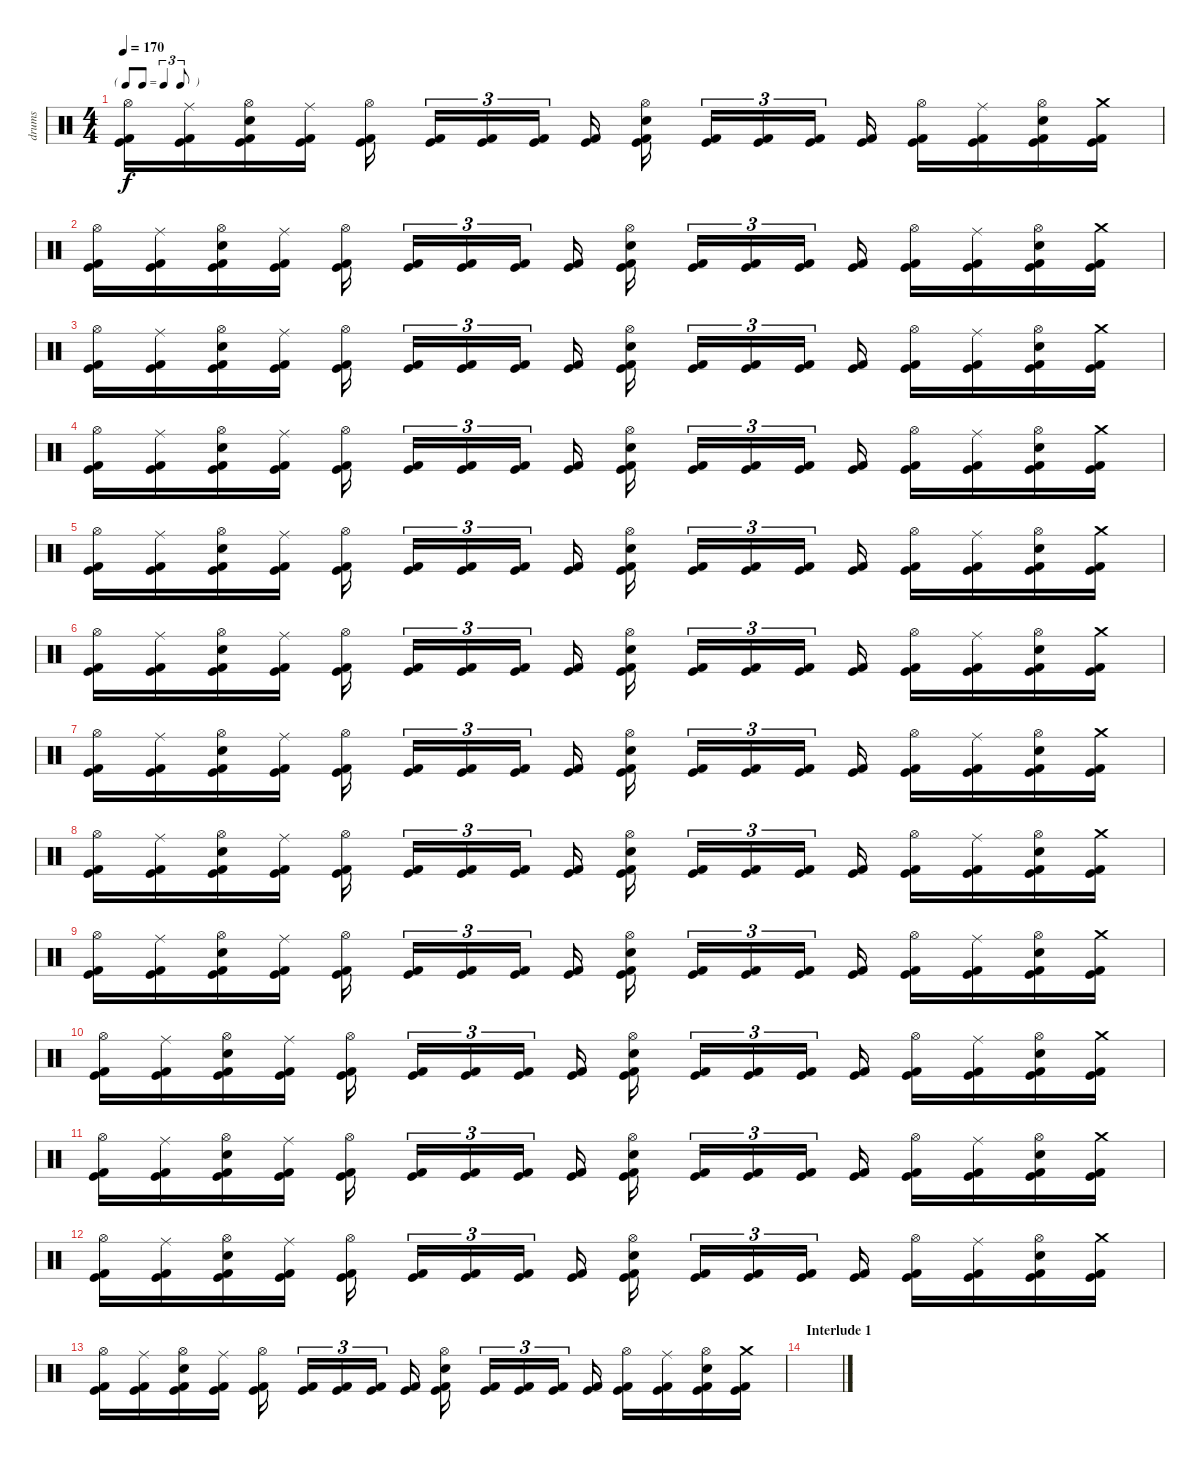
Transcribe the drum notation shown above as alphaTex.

\track ("drums" "drums") {instrument percussion}
\staff {score}
\articulation defaults
\ts (4 4)
\tf triplet8th
\tempo 170
\clef neutral
\ks c
("Hi-Hat (open)" "Kick (hit)" "Kick (hit) 2").16{dy f} ("Ride (middle)" "Kick (hit)" "Kick (hit) 2").16 ("Hi-Hat (open)" "Snare (hit) 2" "Kick (hit)" "Kick (hit) 2").16 ("Ride (middle)" "Kick (hit)" "Kick (hit) 2").16 ("Hi-Hat (open)" "Kick (hit)" "Kick (hit) 2").16 ("Kick (hit)" "Kick (hit) 2").16{tu (3 2)} ("Kick (hit)" "Kick (hit) 2").16{tu (3 2)} ("Kick (hit)" "Kick (hit) 2").16{tu (3 2)} ("Kick (hit)" "Kick (hit) 2").16 ("Hi-Hat (open)" "Snare (hit) 2" "Kick (hit)" "Kick (hit) 2").16 ("Kick (hit)" "Kick (hit) 2").16{tu (3 2)} ("Kick (hit)" "Kick (hit) 2").16{tu (3 2)} ("Kick (hit)" "Kick (hit) 2").16{tu (3 2)} ("Kick (hit)" "Kick (hit) 2").16 ("Hi-Hat (open)" "Kick (hit)" "Kick (hit) 2").16 ("Ride (middle)" "Kick (hit)" "Kick (hit) 2").16 ("Hi-Hat (open)" "Snare (hit) 2" "Kick (hit)" "Kick (hit) 2").16 ("Crash medium (hit)" "Kick (hit)" "Kick (hit) 2").16 |
("Hi-Hat (open)" "Kick (hit)" "Kick (hit) 2").16 ("Ride (middle)" "Kick (hit)" "Kick (hit) 2").16 ("Hi-Hat (open)" "Snare (hit) 2" "Kick (hit)" "Kick (hit) 2").16 ("Ride (middle)" "Kick (hit)" "Kick (hit) 2").16 ("Hi-Hat (open)" "Kick (hit)" "Kick (hit) 2").16 ("Kick (hit)" "Kick (hit) 2").16{tu (3 2)} ("Kick (hit)" "Kick (hit) 2").16{tu (3 2)} ("Kick (hit)" "Kick (hit) 2").16{tu (3 2)} ("Kick (hit)" "Kick (hit) 2").16 ("Hi-Hat (open)" "Snare (hit) 2" "Kick (hit)" "Kick (hit) 2").16 ("Kick (hit)" "Kick (hit) 2").16{tu (3 2)} ("Kick (hit)" "Kick (hit) 2").16{tu (3 2)} ("Kick (hit)" "Kick (hit) 2").16{tu (3 2)} ("Kick (hit)" "Kick (hit) 2").16 ("Hi-Hat (open)" "Kick (hit)" "Kick (hit) 2").16 ("Ride (middle)" "Kick (hit)" "Kick (hit) 2").16 ("Hi-Hat (open)" "Snare (hit) 2" "Kick (hit)" "Kick (hit) 2").16 ("Crash medium (hit)" "Kick (hit)" "Kick (hit) 2").16 |
("Hi-Hat (open)" "Kick (hit)" "Kick (hit) 2").16 ("Ride (middle)" "Kick (hit)" "Kick (hit) 2").16 ("Hi-Hat (open)" "Snare (hit) 2" "Kick (hit)" "Kick (hit) 2").16 ("Ride (middle)" "Kick (hit)" "Kick (hit) 2").16 ("Hi-Hat (open)" "Kick (hit)" "Kick (hit) 2").16 ("Kick (hit)" "Kick (hit) 2").16{tu (3 2)} ("Kick (hit)" "Kick (hit) 2").16{tu (3 2)} ("Kick (hit)" "Kick (hit) 2").16{tu (3 2)} ("Kick (hit)" "Kick (hit) 2").16 ("Hi-Hat (open)" "Snare (hit) 2" "Kick (hit)" "Kick (hit) 2").16 ("Kick (hit)" "Kick (hit) 2").16{tu (3 2)} ("Kick (hit)" "Kick (hit) 2").16{tu (3 2)} ("Kick (hit)" "Kick (hit) 2").16{tu (3 2)} ("Kick (hit)" "Kick (hit) 2").16 ("Hi-Hat (open)" "Kick (hit)" "Kick (hit) 2").16 ("Ride (middle)" "Kick (hit)" "Kick (hit) 2").16 ("Hi-Hat (open)" "Snare (hit) 2" "Kick (hit)" "Kick (hit) 2").16 ("Crash medium (hit)" "Kick (hit)" "Kick (hit) 2").16 |
("Hi-Hat (open)" "Kick (hit)" "Kick (hit) 2").16 ("Ride (middle)" "Kick (hit)" "Kick (hit) 2").16 ("Hi-Hat (open)" "Snare (hit) 2" "Kick (hit)" "Kick (hit) 2").16 ("Ride (middle)" "Kick (hit)" "Kick (hit) 2").16 ("Hi-Hat (open)" "Kick (hit)" "Kick (hit) 2").16 ("Kick (hit)" "Kick (hit) 2").16{tu (3 2)} ("Kick (hit)" "Kick (hit) 2").16{tu (3 2)} ("Kick (hit)" "Kick (hit) 2").16{tu (3 2)} ("Kick (hit)" "Kick (hit) 2").16 ("Hi-Hat (open)" "Snare (hit) 2" "Kick (hit)" "Kick (hit) 2").16 ("Kick (hit)" "Kick (hit) 2").16{tu (3 2)} ("Kick (hit)" "Kick (hit) 2").16{tu (3 2)} ("Kick (hit)" "Kick (hit) 2").16{tu (3 2)} ("Kick (hit)" "Kick (hit) 2").16 ("Hi-Hat (open)" "Kick (hit)" "Kick (hit) 2").16 ("Ride (middle)" "Kick (hit)" "Kick (hit) 2").16 ("Hi-Hat (open)" "Snare (hit) 2" "Kick (hit)" "Kick (hit) 2").16 ("Crash medium (hit)" "Kick (hit)" "Kick (hit) 2").16 |
("Hi-Hat (open)" "Kick (hit)" "Kick (hit) 2").16 ("Ride (middle)" "Kick (hit)" "Kick (hit) 2").16 ("Hi-Hat (open)" "Snare (hit) 2" "Kick (hit)" "Kick (hit) 2").16 ("Ride (middle)" "Kick (hit)" "Kick (hit) 2").16 ("Hi-Hat (open)" "Kick (hit)" "Kick (hit) 2").16 ("Kick (hit)" "Kick (hit) 2").16{tu (3 2)} ("Kick (hit)" "Kick (hit) 2").16{tu (3 2)} ("Kick (hit)" "Kick (hit) 2").16{tu (3 2)} ("Kick (hit)" "Kick (hit) 2").16 ("Hi-Hat (open)" "Snare (hit) 2" "Kick (hit)" "Kick (hit) 2").16 ("Kick (hit)" "Kick (hit) 2").16{tu (3 2)} ("Kick (hit)" "Kick (hit) 2").16{tu (3 2)} ("Kick (hit)" "Kick (hit) 2").16{tu (3 2)} ("Kick (hit)" "Kick (hit) 2").16 ("Hi-Hat (open)" "Kick (hit)" "Kick (hit) 2").16 ("Ride (middle)" "Kick (hit)" "Kick (hit) 2").16 ("Hi-Hat (open)" "Snare (hit) 2" "Kick (hit)" "Kick (hit) 2").16 ("Crash medium (hit)" "Kick (hit)" "Kick (hit) 2").16 |
("Hi-Hat (open)" "Kick (hit)" "Kick (hit) 2").16 ("Ride (middle)" "Kick (hit)" "Kick (hit) 2").16 ("Hi-Hat (open)" "Snare (hit) 2" "Kick (hit)" "Kick (hit) 2").16 ("Ride (middle)" "Kick (hit)" "Kick (hit) 2").16 ("Hi-Hat (open)" "Kick (hit)" "Kick (hit) 2").16 ("Kick (hit)" "Kick (hit) 2").16{tu (3 2)} ("Kick (hit)" "Kick (hit) 2").16{tu (3 2)} ("Kick (hit)" "Kick (hit) 2").16{tu (3 2)} ("Kick (hit)" "Kick (hit) 2").16 ("Hi-Hat (open)" "Snare (hit) 2" "Kick (hit)" "Kick (hit) 2").16 ("Kick (hit)" "Kick (hit) 2").16{tu (3 2)} ("Kick (hit)" "Kick (hit) 2").16{tu (3 2)} ("Kick (hit)" "Kick (hit) 2").16{tu (3 2)} ("Kick (hit)" "Kick (hit) 2").16 ("Hi-Hat (open)" "Kick (hit)" "Kick (hit) 2").16 ("Ride (middle)" "Kick (hit)" "Kick (hit) 2").16 ("Hi-Hat (open)" "Snare (hit) 2" "Kick (hit)" "Kick (hit) 2").16 ("Crash medium (hit)" "Kick (hit)" "Kick (hit) 2").16 |
("Hi-Hat (open)" "Kick (hit)" "Kick (hit) 2").16 ("Ride (middle)" "Kick (hit)" "Kick (hit) 2").16 ("Hi-Hat (open)" "Snare (hit) 2" "Kick (hit)" "Kick (hit) 2").16 ("Ride (middle)" "Kick (hit)" "Kick (hit) 2").16 ("Hi-Hat (open)" "Kick (hit)" "Kick (hit) 2").16 ("Kick (hit)" "Kick (hit) 2").16{tu (3 2)} ("Kick (hit)" "Kick (hit) 2").16{tu (3 2)} ("Kick (hit)" "Kick (hit) 2").16{tu (3 2)} ("Kick (hit)" "Kick (hit) 2").16 ("Hi-Hat (open)" "Snare (hit) 2" "Kick (hit)" "Kick (hit) 2").16 ("Kick (hit)" "Kick (hit) 2").16{tu (3 2)} ("Kick (hit)" "Kick (hit) 2").16{tu (3 2)} ("Kick (hit)" "Kick (hit) 2").16{tu (3 2)} ("Kick (hit)" "Kick (hit) 2").16 ("Hi-Hat (open)" "Kick (hit)" "Kick (hit) 2").16 ("Ride (middle)" "Kick (hit)" "Kick (hit) 2").16 ("Hi-Hat (open)" "Snare (hit) 2" "Kick (hit)" "Kick (hit) 2").16 ("Crash medium (hit)" "Kick (hit)" "Kick (hit) 2").16 |
("Hi-Hat (open)" "Kick (hit)" "Kick (hit) 2").16 ("Ride (middle)" "Kick (hit)" "Kick (hit) 2").16 ("Hi-Hat (open)" "Snare (hit) 2" "Kick (hit)" "Kick (hit) 2").16 ("Ride (middle)" "Kick (hit)" "Kick (hit) 2").16 ("Hi-Hat (open)" "Kick (hit)" "Kick (hit) 2").16 ("Kick (hit)" "Kick (hit) 2").16{tu (3 2)} ("Kick (hit)" "Kick (hit) 2").16{tu (3 2)} ("Kick (hit)" "Kick (hit) 2").16{tu (3 2)} ("Kick (hit)" "Kick (hit) 2").16 ("Hi-Hat (open)" "Snare (hit) 2" "Kick (hit)" "Kick (hit) 2").16 ("Kick (hit)" "Kick (hit) 2").16{tu (3 2)} ("Kick (hit)" "Kick (hit) 2").16{tu (3 2)} ("Kick (hit)" "Kick (hit) 2").16{tu (3 2)} ("Kick (hit)" "Kick (hit) 2").16 ("Hi-Hat (open)" "Kick (hit)" "Kick (hit) 2").16 ("Ride (middle)" "Kick (hit)" "Kick (hit) 2").16 ("Hi-Hat (open)" "Snare (hit) 2" "Kick (hit)" "Kick (hit) 2").16 ("Crash medium (hit)" "Kick (hit)" "Kick (hit) 2").16 |
("Hi-Hat (open)" "Kick (hit)" "Kick (hit) 2").16 ("Ride (middle)" "Kick (hit)" "Kick (hit) 2").16 ("Hi-Hat (open)" "Snare (hit) 2" "Kick (hit)" "Kick (hit) 2").16 ("Ride (middle)" "Kick (hit)" "Kick (hit) 2").16 ("Hi-Hat (open)" "Kick (hit)" "Kick (hit) 2").16 ("Kick (hit)" "Kick (hit) 2").16{tu (3 2)} ("Kick (hit)" "Kick (hit) 2").16{tu (3 2)} ("Kick (hit)" "Kick (hit) 2").16{tu (3 2)} ("Kick (hit)" "Kick (hit) 2").16 ("Hi-Hat (open)" "Snare (hit) 2" "Kick (hit)" "Kick (hit) 2").16 ("Kick (hit)" "Kick (hit) 2").16{tu (3 2)} ("Kick (hit)" "Kick (hit) 2").16{tu (3 2)} ("Kick (hit)" "Kick (hit) 2").16{tu (3 2)} ("Kick (hit)" "Kick (hit) 2").16 ("Hi-Hat (open)" "Kick (hit)" "Kick (hit) 2").16 ("Ride (middle)" "Kick (hit)" "Kick (hit) 2").16 ("Hi-Hat (open)" "Snare (hit) 2" "Kick (hit)" "Kick (hit) 2").16 ("Crash medium (hit)" "Kick (hit)" "Kick (hit) 2").16 |
("Hi-Hat (open)" "Kick (hit)" "Kick (hit) 2").16 ("Ride (middle)" "Kick (hit)" "Kick (hit) 2").16 ("Hi-Hat (open)" "Snare (hit) 2" "Kick (hit)" "Kick (hit) 2").16 ("Ride (middle)" "Kick (hit)" "Kick (hit) 2").16 ("Hi-Hat (open)" "Kick (hit)" "Kick (hit) 2").16 ("Kick (hit)" "Kick (hit) 2").16{tu (3 2)} ("Kick (hit)" "Kick (hit) 2").16{tu (3 2)} ("Kick (hit)" "Kick (hit) 2").16{tu (3 2)} ("Kick (hit)" "Kick (hit) 2").16 ("Hi-Hat (open)" "Snare (hit) 2" "Kick (hit)" "Kick (hit) 2").16 ("Kick (hit)" "Kick (hit) 2").16{tu (3 2)} ("Kick (hit)" "Kick (hit) 2").16{tu (3 2)} ("Kick (hit)" "Kick (hit) 2").16{tu (3 2)} ("Kick (hit)" "Kick (hit) 2").16 ("Hi-Hat (open)" "Kick (hit)" "Kick (hit) 2").16 ("Ride (middle)" "Kick (hit)" "Kick (hit) 2").16 ("Hi-Hat (open)" "Snare (hit) 2" "Kick (hit)" "Kick (hit) 2").16 ("Crash medium (hit)" "Kick (hit)" "Kick (hit) 2").16 |
("Hi-Hat (open)" "Kick (hit)" "Kick (hit) 2").16 ("Ride (middle)" "Kick (hit)" "Kick (hit) 2").16 ("Hi-Hat (open)" "Snare (hit) 2" "Kick (hit)" "Kick (hit) 2").16 ("Ride (middle)" "Kick (hit)" "Kick (hit) 2").16 ("Hi-Hat (open)" "Kick (hit)" "Kick (hit) 2").16 ("Kick (hit)" "Kick (hit) 2").16{tu (3 2)} ("Kick (hit)" "Kick (hit) 2").16{tu (3 2)} ("Kick (hit)" "Kick (hit) 2").16{tu (3 2)} ("Kick (hit)" "Kick (hit) 2").16 ("Hi-Hat (open)" "Snare (hit) 2" "Kick (hit)" "Kick (hit) 2").16 ("Kick (hit)" "Kick (hit) 2").16{tu (3 2)} ("Kick (hit)" "Kick (hit) 2").16{tu (3 2)} ("Kick (hit)" "Kick (hit) 2").16{tu (3 2)} ("Kick (hit)" "Kick (hit) 2").16 ("Hi-Hat (open)" "Kick (hit)" "Kick (hit) 2").16 ("Ride (middle)" "Kick (hit)" "Kick (hit) 2").16 ("Hi-Hat (open)" "Snare (hit) 2" "Kick (hit)" "Kick (hit) 2").16 ("Crash medium (hit)" "Kick (hit)" "Kick (hit) 2").16 |
("Hi-Hat (open)" "Kick (hit)" "Kick (hit) 2").16 ("Ride (middle)" "Kick (hit)" "Kick (hit) 2").16 ("Hi-Hat (open)" "Snare (hit) 2" "Kick (hit)" "Kick (hit) 2").16 ("Ride (middle)" "Kick (hit)" "Kick (hit) 2").16 ("Hi-Hat (open)" "Kick (hit)" "Kick (hit) 2").16 ("Kick (hit)" "Kick (hit) 2").16{tu (3 2)} ("Kick (hit)" "Kick (hit) 2").16{tu (3 2)} ("Kick (hit)" "Kick (hit) 2").16{tu (3 2)} ("Kick (hit)" "Kick (hit) 2").16 ("Hi-Hat (open)" "Snare (hit) 2" "Kick (hit)" "Kick (hit) 2").16 ("Kick (hit)" "Kick (hit) 2").16{tu (3 2)} ("Kick (hit)" "Kick (hit) 2").16{tu (3 2)} ("Kick (hit)" "Kick (hit) 2").16{tu (3 2)} ("Kick (hit)" "Kick (hit) 2").16 ("Hi-Hat (open)" "Kick (hit)" "Kick (hit) 2").16 ("Ride (middle)" "Kick (hit)" "Kick (hit) 2").16 ("Hi-Hat (open)" "Snare (hit) 2" "Kick (hit)" "Kick (hit) 2").16 ("Crash medium (hit)" "Kick (hit)" "Kick (hit) 2").16 |
("Hi-Hat (open)" "Kick (hit)" "Kick (hit) 2").16 ("Ride (middle)" "Kick (hit)" "Kick (hit) 2").16 ("Hi-Hat (open)" "Snare (hit) 2" "Kick (hit)" "Kick (hit) 2").16 ("Ride (middle)" "Kick (hit)" "Kick (hit) 2").16 ("Hi-Hat (open)" "Kick (hit)" "Kick (hit) 2").16 ("Kick (hit)" "Kick (hit) 2").16{tu (3 2)} ("Kick (hit)" "Kick (hit) 2").16{tu (3 2)} ("Kick (hit)" "Kick (hit) 2").16{tu (3 2)} ("Kick (hit)" "Kick (hit) 2").16 ("Hi-Hat (open)" "Snare (hit) 2" "Kick (hit)" "Kick (hit) 2").16 ("Kick (hit)" "Kick (hit) 2").16{tu (3 2)} ("Kick (hit)" "Kick (hit) 2").16{tu (3 2)} ("Kick (hit)" "Kick (hit) 2").16{tu (3 2)} ("Kick (hit)" "Kick (hit) 2").16 ("Hi-Hat (open)" "Kick (hit)" "Kick (hit) 2").16 ("Ride (middle)" "Kick (hit)" "Kick (hit) 2").16 ("Hi-Hat (open)" "Snare (hit) 2" "Kick (hit)" "Kick (hit) 2").16 ("Crash medium (hit)" "Kick (hit)" "Kick (hit) 2").16 |
\section ("" "Interlude 1")
